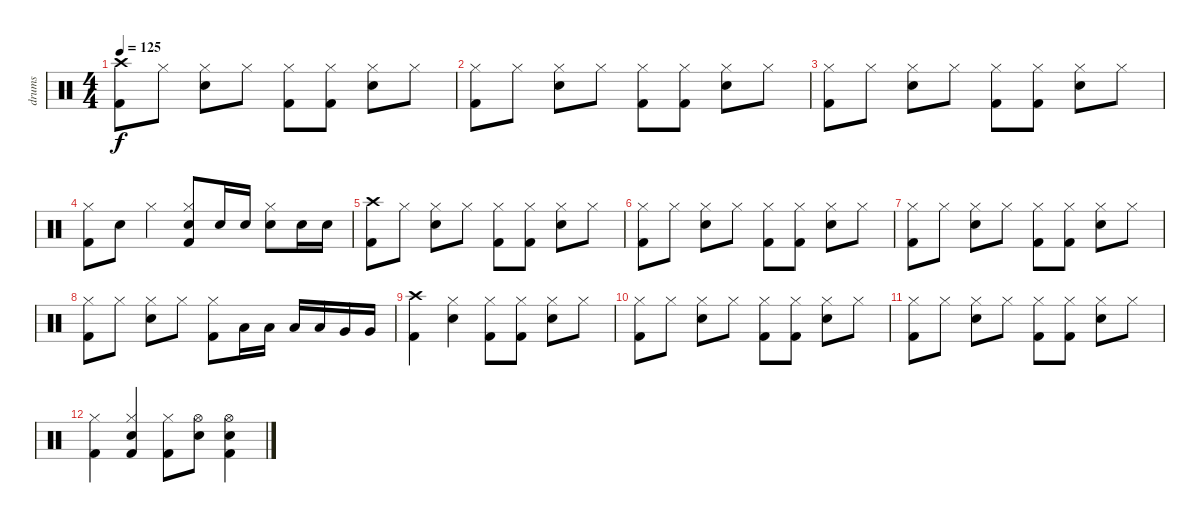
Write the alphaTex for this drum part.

\track ("drums" "drums") {instrument percussion}
\staff {score}
\articulation defaults
\ts (4 4)
\tempo 125
\clef neutral
\ks c
("Crash high (hit)" "Kick (hit) 2").8{dy f} "Hi-Hat (closed)".8 ("Hi-Hat (closed)" "Electric Snare (hit)").8 "Hi-Hat (closed)".8 ("Hi-Hat (closed)" "Kick (hit) 2").8 ("Hi-Hat (closed)" "Kick (hit) 2").8 ("Hi-Hat (closed)" "Electric Snare (hit)").8 "Hi-Hat (closed)".8 |
("Hi-Hat (closed)" "Kick (hit) 2").8 "Hi-Hat (closed)".8 ("Hi-Hat (closed)" "Electric Snare (hit)").8 "Hi-Hat (closed)".8 ("Hi-Hat (closed)" "Kick (hit) 2").8 ("Hi-Hat (closed)" "Kick (hit) 2").8 ("Hi-Hat (closed)" "Electric Snare (hit)").8 "Hi-Hat (closed)".8 |
("Hi-Hat (closed)" "Kick (hit) 2").8 "Hi-Hat (closed)".8 ("Hi-Hat (closed)" "Electric Snare (hit)").8 "Hi-Hat (closed)".8 ("Hi-Hat (closed)" "Kick (hit) 2").8 ("Hi-Hat (closed)" "Kick (hit) 2").8 ("Hi-Hat (closed)" "Electric Snare (hit)").8 "Hi-Hat (closed)".8 |
("Hi-Hat (closed)" "Kick (hit) 2").8 "Electric Snare (hit)".8 "Hi-Hat (closed)".4 ("Hi-Hat (closed)" "Electric Snare (hit)" "Kick (hit) 2").8 "Electric Snare (hit)".16 "Electric Snare (hit)".16 ("Hi-Hat (closed)" "Electric Snare (hit)").8 "Electric Snare (hit)".16 "Electric Snare (hit)".16 |
("Crash high (hit)" "Kick (hit) 2").8 "Hi-Hat (closed)".8 ("Hi-Hat (closed)" "Electric Snare (hit)").8 "Hi-Hat (closed)".8 ("Hi-Hat (closed)" "Kick (hit) 2").8 ("Hi-Hat (closed)" "Kick (hit) 2").8 ("Hi-Hat (closed)" "Electric Snare (hit)").8 "Hi-Hat (closed)".8 |
("Hi-Hat (closed)" "Kick (hit) 2").8 "Hi-Hat (closed)".8 ("Hi-Hat (closed)" "Electric Snare (hit)").8 "Hi-Hat (closed)".8 ("Hi-Hat (closed)" "Kick (hit) 2").8 ("Hi-Hat (closed)" "Kick (hit) 2").8 ("Hi-Hat (closed)" "Electric Snare (hit)").8 "Hi-Hat (closed)".8 |
("Hi-Hat (closed)" "Kick (hit) 2").8 "Hi-Hat (closed)".8 ("Hi-Hat (closed)" "Electric Snare (hit)").8 "Hi-Hat (closed)".8 ("Hi-Hat (closed)" "Kick (hit) 2").8 ("Hi-Hat (closed)" "Kick (hit) 2").8 ("Hi-Hat (closed)" "Electric Snare (hit)").8 "Hi-Hat (closed)".8 |
("Hi-Hat (closed)" "Kick (hit) 2").8 "Hi-Hat (closed)".8 ("Hi-Hat (closed)" "Electric Snare (hit)").8 "Hi-Hat (closed)".8 ("Hi-Hat (closed)" "Kick (hit) 2").8 "Low Tom (hit)".16 "Low Tom (hit)".16 "Low Tom (hit)".16 "Low Tom (hit)".16 "Very Low Tom (hit)".16 "Very Low Tom (hit)".16 |
("Crash high (hit)" "Kick (hit) 2").4 ("Hi-Hat (closed)" "Electric Snare (hit)").4 ("Hi-Hat (closed)" "Kick (hit) 2").8 ("Hi-Hat (closed)" "Kick (hit) 2").8 ("Hi-Hat (closed)" "Electric Snare (hit)").8 "Hi-Hat (closed)".8 |
("Hi-Hat (closed)" "Kick (hit) 2").8 "Hi-Hat (closed)".8 ("Hi-Hat (closed)" "Electric Snare (hit)").8 "Hi-Hat (closed)".8 ("Hi-Hat (closed)" "Kick (hit) 2").8 ("Hi-Hat (closed)" "Kick (hit) 2").8 ("Hi-Hat (closed)" "Electric Snare (hit)").8 "Hi-Hat (closed)".8 |
("Hi-Hat (closed)" "Kick (hit) 2").8 "Hi-Hat (closed)".8 ("Hi-Hat (closed)" "Electric Snare (hit)").8 "Hi-Hat (closed)".8 ("Hi-Hat (closed)" "Kick (hit) 2").8 ("Hi-Hat (closed)" "Kick (hit) 2").8 ("Hi-Hat (closed)" "Electric Snare (hit)").8 "Hi-Hat (closed)".8 |
("Hi-Hat (closed)" "Kick (hit) 2").4 ("Hi-Hat (closed)" "Electric Snare (hit)" "Kick (hit) 2").4 ("Hi-Hat (closed)" "Kick (hit) 2").8 ("Hi-Hat (open)" "Electric Snare (hit)").8 ("Hi-Hat (open)" "Electric Snare (hit)" "Kick (hit) 2").4
